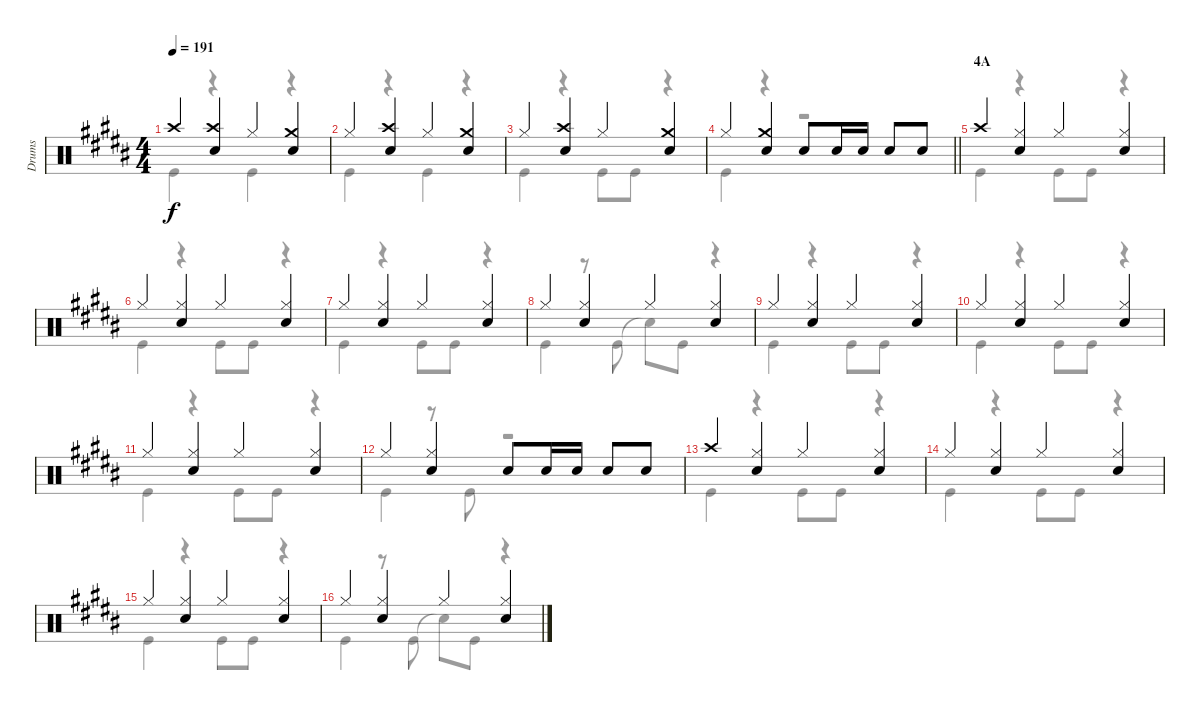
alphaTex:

\track ("Drums" "Drums") {instrument percussion}
\staff {score}
\articulation defaults
\voice
\ts (4 4)
\tempo 191
\clef neutral
\ks b "Crash high (hit)".4{dy f}
("Crash high (hit)" "Snare (hit) 2").4 "Hi-Hat (closed)".4 ("Crash medium (hit)" "Snare (hit) 2").4 |
"Hi-Hat (closed)".4 ("Crash high (hit)" "Snare (hit) 2").4 "Hi-Hat (closed)".4 ("Crash medium (hit)" "Snare (hit) 2").4 |
"Hi-Hat (closed)".4 ("Crash high (hit)" "Snare (hit) 2").4 "Hi-Hat (closed)".4 ("Crash medium (hit)" "Snare (hit) 2").4 |
\barLineRight lightlight "Hi-Hat (closed)".4
("Crash medium (hit)" "Snare (hit) 2").4 "Snare (hit) 2".8 "Snare (hit) 2".16 "Snare (hit) 2".16 "Snare (hit) 2".8 "Snare (hit) 2".8 |
\section ("" "4A")
"Crash high (hit)".4 ("Hi-Hat (closed)" "Snare (hit) 2").4 "Hi-Hat (closed)".4 ("Hi-Hat (closed)" "Snare (hit) 2").4 |
"Hi-Hat (closed)".4 ("Hi-Hat (closed)" "Snare (hit) 2").4 "Hi-Hat (closed)".4 ("Hi-Hat (closed)" "Snare (hit) 2").4 |
"Hi-Hat (closed)".4 ("Hi-Hat (closed)" "Snare (hit) 2").4 "Hi-Hat (closed)".4 ("Hi-Hat (closed)" "Snare (hit) 2").4 |
"Hi-Hat (closed)".4 ("Hi-Hat (closed)" "Snare (hit) 2").4 "Hi-Hat (closed)".4 ("Hi-Hat (closed)" "Snare (hit) 2").4 |
"Hi-Hat (closed)".4 ("Hi-Hat (closed)" "Snare (hit) 2").4 "Hi-Hat (closed)".4 ("Hi-Hat (closed)" "Snare (hit) 2").4 |
"Hi-Hat (closed)".4 ("Hi-Hat (closed)" "Snare (hit) 2").4 "Hi-Hat (closed)".4 ("Hi-Hat (closed)" "Snare (hit) 2").4 |
"Hi-Hat (closed)".4 ("Hi-Hat (closed)" "Snare (hit) 2").4 "Hi-Hat (closed)".4 ("Hi-Hat (closed)" "Snare (hit) 2").4 |
"Hi-Hat (closed)".4 ("Hi-Hat (closed)" "Snare (hit) 2").4 "Snare (hit) 2".8 "Snare (hit) 2".16 "Snare (hit) 2".16 "Snare (hit) 2".8 "Snare (hit) 2".8 |
"Crash high (hit)".4 ("Hi-Hat (closed)" "Snare (hit) 2").4 "Hi-Hat (closed)".4 ("Hi-Hat (closed)" "Snare (hit) 2").4 |
"Hi-Hat (closed)".4 ("Hi-Hat (closed)" "Snare (hit) 2").4 "Hi-Hat (closed)".4 ("Hi-Hat (closed)" "Snare (hit) 2").4 |
"Hi-Hat (closed)".4 ("Hi-Hat (closed)" "Snare (hit) 2").4 "Hi-Hat (closed)".4 ("Hi-Hat (closed)" "Snare (hit) 2").4 |
"Hi-Hat (closed)".4 ("Hi-Hat (closed)" "Snare (hit) 2").4 "Hi-Hat (closed)".4 ("Hi-Hat (closed)" "Snare (hit) 2").4
\voice
\clef neutral
\ottava regular
\simile none
\ks b "Kick (hit)".4{dy f}
r.4 "Kick (hit)".4 r.4 |
"Kick (hit)".4 r.4 "Kick (hit)".4 r.4 |
"Kick (hit)".4 r.4 "Kick (hit)".8 "Kick (hit)".8 r.4 |
\barLineRight lightlight "Kick (hit)".4
r.4 r.2 |
"Kick (hit)".4 r.4 "Kick (hit)".8 "Kick (hit)".8 r.4 |
"Kick (hit)".4 r.4 "Kick (hit)".8 "Kick (hit)".8 r.4 |
"Kick (hit)".4 r.4 "Kick (hit)".8 "Kick (hit)".8 r.4 |
"Kick (hit)".4 r.8 "Kick (hit)".8 "Snare (hit)"{t}.8 "Kick (hit)".8 r.4 |
"Kick (hit)".4 r.4 "Kick (hit)".8 "Kick (hit)".8 r.4 |
"Kick (hit)".4 r.4 "Kick (hit)".8 "Kick (hit)".8 r.4 |
"Kick (hit)".4 r.4 "Kick (hit)".8 "Kick (hit)".8 r.4 |
"Kick (hit)".4 r.8 "Kick (hit)".8 r.2 |
"Kick (hit)".4 r.4 "Kick (hit)".8 "Kick (hit)".8 r.4 |
"Kick (hit)".4 r.4 "Kick (hit)".8 "Kick (hit)".8 r.4 |
"Kick (hit)".4 r.4 "Kick (hit)".8 "Kick (hit)".8 r.4 |
"Kick (hit)".4 r.8 "Kick (hit)".8 "Snare (hit)"{t}.8 "Kick (hit)".8 r.4
